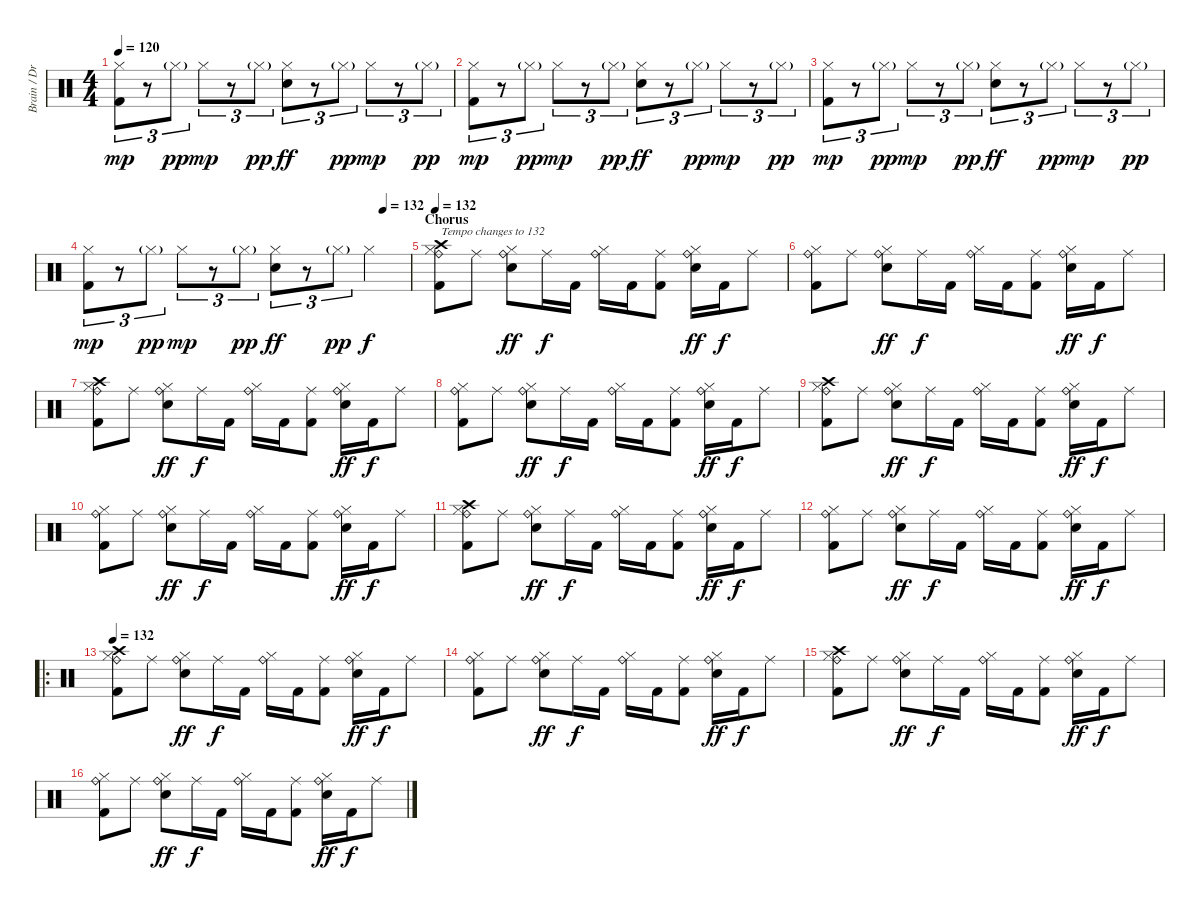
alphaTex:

\track ("Brain / Drums" "Brain / Dr") {instrument percussion}
\staff {score}
\articulation defaults
\ts (4 4)
\tempo 120
\clef neutral
\ks c
("Hi-Hat (closed)" "Kick (hit) 2").8{tu (3 2) dy mp} r.8{tu (3 2)} "Hi-Hat (closed)"{g}.8{tu (3 2) dy pp} "Hi-Hat (closed)".8{tu (3 2) dy mp} r.8{tu (3 2)} "Hi-Hat (closed)"{g}.8{tu (3 2) dy pp} ("Hi-Hat (closed)" "Electric Snare (hit)").8{tu (3 2) dy ff} r.8{tu (3 2)} "Hi-Hat (closed)"{g}.8{tu (3 2) dy pp} "Hi-Hat (closed)".8{tu (3 2) dy mp} r.8{tu (3 2)} "Hi-Hat (closed)"{g}.8{tu (3 2) dy pp} |
("Hi-Hat (closed)" "Kick (hit) 2").8{tu (3 2) dy mp} r.8{tu (3 2)} "Hi-Hat (closed)"{g}.8{tu (3 2) dy pp} "Hi-Hat (closed)".8{tu (3 2) dy mp} r.8{tu (3 2)} "Hi-Hat (closed)"{g}.8{tu (3 2) dy pp} ("Hi-Hat (closed)" "Electric Snare (hit)").8{tu (3 2) dy ff} r.8{tu (3 2)} "Hi-Hat (closed)"{g}.8{tu (3 2) dy pp} "Hi-Hat (closed)".8{tu (3 2) dy mp} r.8{tu (3 2)} "Hi-Hat (closed)"{g}.8{tu (3 2) dy pp} |
("Hi-Hat (closed)" "Kick (hit) 2").8{tu (3 2) dy mp} r.8{tu (3 2)} "Hi-Hat (closed)"{g}.8{tu (3 2) dy pp} "Hi-Hat (closed)".8{tu (3 2) dy mp} r.8{tu (3 2)} "Hi-Hat (closed)"{g}.8{tu (3 2) dy pp} ("Hi-Hat (closed)" "Electric Snare (hit)").8{tu (3 2) dy ff} r.8{tu (3 2)} "Hi-Hat (closed)"{g}.8{tu (3 2) dy pp} "Hi-Hat (closed)".8{tu (3 2) dy mp} r.8{tu (3 2)} "Hi-Hat (closed)"{g}.8{tu (3 2) dy pp} |
\tempo (132 0.9166666666666666)
("Hi-Hat (closed)" "Kick (hit) 2").8{tu (3 2) dy mp} r.8{tu (3 2)} "Hi-Hat (closed)"{g}.8{tu (3 2) dy pp} "Hi-Hat (closed)".8{tu (3 2) dy mp} r.8{tu (3 2)} "Hi-Hat (closed)"{g}.8{tu (3 2) dy pp} ("Hi-Hat (closed)" "Electric Snare (hit)").8{tu (3 2) dy ff} r.8{tu (3 2)} "Hi-Hat (closed)"{g}.8{tu (3 2) dy pp} "Hi-Hat (closed)".4{dy f} |
\section ("" "Chorus")
\tempo 132
("Crash high (hit)" "Hi-Hat (closed)" "Ride (bell)" "Kick (hit) 2").8{txt "Tempo changes to 132"} "Ride (middle)".8 ("Hi-Hat (closed)" "Ride (bell)" "Electric Snare (hit)").8{dy ff} "Ride (middle)".16{dy f} "Kick (hit) 2".16 ("Hi-Hat (closed)" "Ride (bell)").16 "Kick (hit) 2".16 ("Ride (middle)" "Kick (hit) 2").8 ("Hi-Hat (closed)" "Ride (bell)" "Electric Snare (hit)").16{dy ff} "Kick (hit) 2".16{dy f} "Ride (middle)".8 |
("Hi-Hat (closed)" "Ride (bell)" "Kick (hit) 2").8 "Ride (middle)".8 ("Hi-Hat (closed)" "Ride (bell)" "Electric Snare (hit)").8{dy ff} "Ride (middle)".16{dy f} "Kick (hit) 2".16 ("Hi-Hat (closed)" "Ride (bell)").16 "Kick (hit) 2".16 ("Ride (middle)" "Kick (hit) 2").8 ("Hi-Hat (closed)" "Ride (bell)" "Electric Snare (hit)").16{dy ff} "Kick (hit) 2".16{dy f} "Ride (middle)".8 |
("Crash high (hit)" "Hi-Hat (closed)" "Ride (bell)" "Kick (hit) 2").8 "Ride (middle)".8 ("Hi-Hat (closed)" "Ride (bell)" "Electric Snare (hit)").8{dy ff} "Ride (middle)".16{dy f} "Kick (hit) 2".16 ("Hi-Hat (closed)" "Ride (bell)").16 "Kick (hit) 2".16 ("Ride (middle)" "Kick (hit) 2").8 ("Hi-Hat (closed)" "Ride (bell)" "Electric Snare (hit)").16{dy ff} "Kick (hit) 2".16{dy f} "Ride (middle)".8 |
("Hi-Hat (closed)" "Ride (bell)" "Kick (hit) 2").8 "Ride (middle)".8 ("Hi-Hat (closed)" "Ride (bell)" "Electric Snare (hit)").8{dy ff} "Ride (middle)".16{dy f} "Kick (hit) 2".16 ("Hi-Hat (closed)" "Ride (bell)").16 "Kick (hit) 2".16 ("Ride (middle)" "Kick (hit) 2").8 ("Hi-Hat (closed)" "Ride (bell)" "Electric Snare (hit)").16{dy ff} "Kick (hit) 2".16{dy f} "Ride (middle)".8 |
("Crash high (hit)" "Hi-Hat (closed)" "Ride (bell)" "Kick (hit) 2").8 "Ride (middle)".8 ("Hi-Hat (closed)" "Ride (bell)" "Electric Snare (hit)").8{dy ff} "Ride (middle)".16{dy f} "Kick (hit) 2".16 ("Hi-Hat (closed)" "Ride (bell)").16 "Kick (hit) 2".16 ("Ride (middle)" "Kick (hit) 2").8 ("Hi-Hat (closed)" "Ride (bell)" "Electric Snare (hit)").16{dy ff} "Kick (hit) 2".16{dy f} "Ride (middle)".8 |
("Hi-Hat (closed)" "Ride (bell)" "Kick (hit) 2").8 "Ride (middle)".8 ("Hi-Hat (closed)" "Ride (bell)" "Electric Snare (hit)").8{dy ff} "Ride (middle)".16{dy f} "Kick (hit) 2".16 ("Hi-Hat (closed)" "Ride (bell)").16 "Kick (hit) 2".16 ("Ride (middle)" "Kick (hit) 2").8 ("Hi-Hat (closed)" "Ride (bell)" "Electric Snare (hit)").16{dy ff} "Kick (hit) 2".16{dy f} "Ride (middle)".8 |
("Crash high (hit)" "Hi-Hat (closed)" "Ride (bell)" "Kick (hit) 2").8 "Ride (middle)".8 ("Hi-Hat (closed)" "Ride (bell)" "Electric Snare (hit)").8{dy ff} "Ride (middle)".16{dy f} "Kick (hit) 2".16 ("Hi-Hat (closed)" "Ride (bell)").16 "Kick (hit) 2".16 ("Ride (middle)" "Kick (hit) 2").8 ("Hi-Hat (closed)" "Ride (bell)" "Electric Snare (hit)").16{dy ff} "Kick (hit) 2".16{dy f} "Ride (middle)".8 |
("Hi-Hat (closed)" "Ride (bell)" "Kick (hit) 2").8 "Ride (middle)".8 ("Hi-Hat (closed)" "Ride (bell)" "Electric Snare (hit)").8{dy ff} "Ride (middle)".16{dy f} "Kick (hit) 2".16 ("Hi-Hat (closed)" "Ride (bell)").16 "Kick (hit) 2".16 ("Ride (middle)" "Kick (hit) 2").8 ("Hi-Hat (closed)" "Ride (bell)" "Electric Snare (hit)").16{dy ff} "Kick (hit) 2".16{dy f} "Ride (middle)".8 |
\ro
\tempo 132
("Crash high (hit)" "Hi-Hat (closed)" "Ride (bell)" "Kick (hit) 2").8 "Ride (middle)".8 ("Hi-Hat (closed)" "Ride (bell)" "Electric Snare (hit)").8{dy ff} "Ride (middle)".16{dy f} "Kick (hit) 2".16 ("Hi-Hat (closed)" "Ride (bell)").16 "Kick (hit) 2".16 ("Ride (middle)" "Kick (hit) 2").8 ("Hi-Hat (closed)" "Ride (bell)" "Electric Snare (hit)").16{dy ff} "Kick (hit) 2".16{dy f} "Ride (middle)".8 |
("Hi-Hat (closed)" "Ride (bell)" "Kick (hit) 2").8 "Ride (middle)".8 ("Hi-Hat (closed)" "Ride (bell)" "Electric Snare (hit)").8{dy ff} "Ride (middle)".16{dy f} "Kick (hit) 2".16 ("Hi-Hat (closed)" "Ride (bell)").16 "Kick (hit) 2".16 ("Ride (middle)" "Kick (hit) 2").8 ("Hi-Hat (closed)" "Ride (bell)" "Electric Snare (hit)").16{dy ff} "Kick (hit) 2".16{dy f} "Ride (middle)".8 |
("Crash high (hit)" "Hi-Hat (closed)" "Ride (bell)" "Kick (hit) 2").8 "Ride (middle)".8 ("Hi-Hat (closed)" "Ride (bell)" "Electric Snare (hit)").8{dy ff} "Ride (middle)".16{dy f} "Kick (hit) 2".16 ("Hi-Hat (closed)" "Ride (bell)").16 "Kick (hit) 2".16 ("Ride (middle)" "Kick (hit) 2").8 ("Hi-Hat (closed)" "Ride (bell)" "Electric Snare (hit)").16{dy ff} "Kick (hit) 2".16{dy f} "Ride (middle)".8 |
("Hi-Hat (closed)" "Ride (bell)" "Kick (hit) 2").8 "Ride (middle)".8 ("Hi-Hat (closed)" "Ride (bell)" "Electric Snare (hit)").8{dy ff} "Ride (middle)".16{dy f} "Kick (hit) 2".16 ("Hi-Hat (closed)" "Ride (bell)").16 "Kick (hit) 2".16 ("Ride (middle)" "Kick (hit) 2").8 ("Hi-Hat (closed)" "Ride (bell)" "Electric Snare (hit)").16{dy ff} "Kick (hit) 2".16{dy f} "Ride (middle)".8
